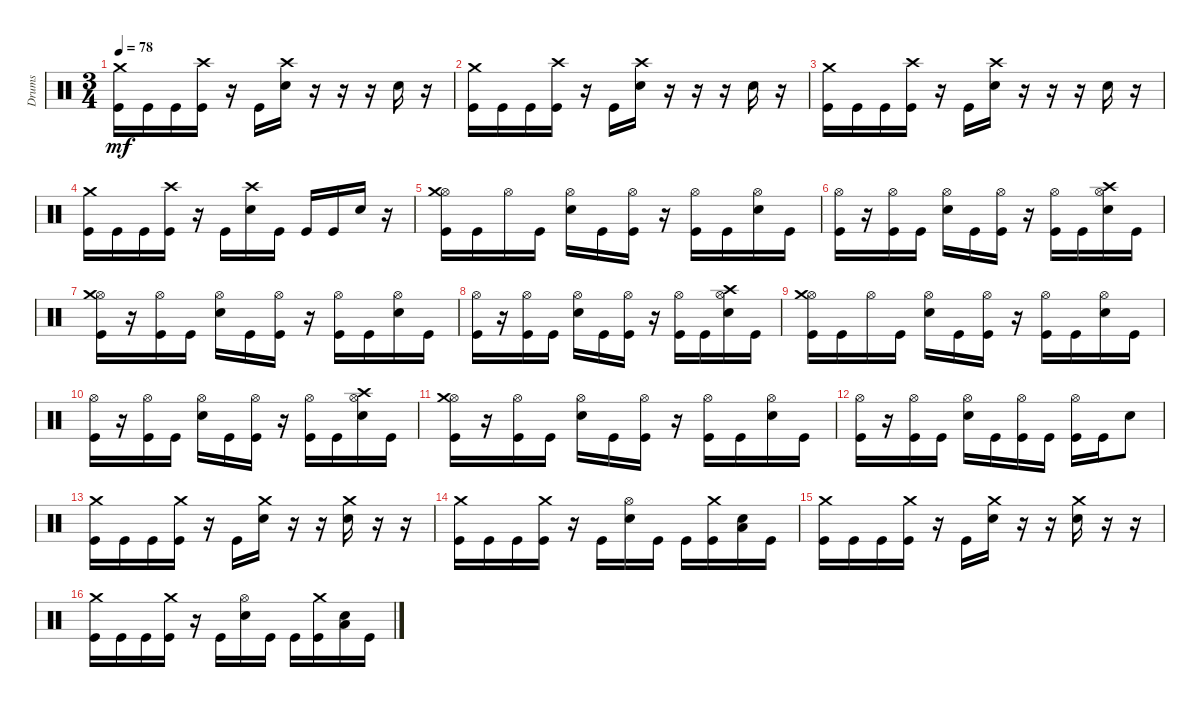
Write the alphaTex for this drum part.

\track ("Drums" "Drums") {instrument percussion}
\staff {score}
\articulation defaults
\ts (3 4)
\tempo 78
\clef neutral
\ks c
("Kick (hit)" "Crash medium (hit)").16{dy mf} "Kick (hit)".16 "Kick (hit)".16 ("Kick (hit)" "Crash high (hit)").16 r.16 "Kick (hit)".16 ("Snare (hit) 2" "Crash high (hit)").16 r.16 r.16 r.16 "Snare (hit) 2".16 r.16 |
("Kick (hit)" "Crash medium (hit)").16 "Kick (hit)".16 "Kick (hit)".16 ("Kick (hit)" "Crash high (hit)").16 r.16 "Kick (hit)".16 ("Snare (hit) 2" "Crash high (hit)").16 r.16 r.16 r.16 "Snare (hit) 2".16 r.16 |
("Kick (hit)" "Crash medium (hit)").16 "Kick (hit)".16 "Kick (hit)".16 ("Kick (hit)" "Crash high (hit)").16 r.16 "Kick (hit)".16 ("Snare (hit) 2" "Crash high (hit)").16 r.16 r.16 r.16 "Snare (hit) 2".16 r.16 |
("Kick (hit)" "Crash medium (hit)").16 "Kick (hit)".16 "Kick (hit)".16 ("Kick (hit)" "Crash high (hit)").16 r.16 "Kick (hit)".16 ("Snare (hit) 2" "Crash high (hit)").16 "Kick (hit)".16 "Kick (hit)".16 "Kick (hit)".16 "Snare (hit) 2".16 r.16 |
("Kick (hit)" "Hi-Hat (open)" "Crash medium (hit)").16 "Kick (hit)".16 "Hi-Hat (open)".16 "Kick (hit)".16 ("Snare (hit) 2" "Hi-Hat (open)").16 "Kick (hit)".16 ("Kick (hit)" "Hi-Hat (open)").16 r.16 ("Kick (hit)" "Hi-Hat (open)").16 "Kick (hit)".16 ("Snare (hit) 2" "Hi-Hat (open)").16 "Kick (hit)".16 |
("Kick (hit)" "Hi-Hat (open)").16 r.16 ("Kick (hit)" "Hi-Hat (open)").16 "Kick (hit)".16 ("Snare (hit) 2" "Hi-Hat (open)").16 "Kick (hit)".16 ("Kick (hit)" "Hi-Hat (open)").16 r.16 ("Kick (hit)" "Hi-Hat (open)").16 "Kick (hit)".16 ("Snare (hit) 2" "Hi-Hat (open)" "Crash high (hit)").16 "Kick (hit)".16 |
("Kick (hit)" "Hi-Hat (open)" "Crash medium (hit)").16 r.16 ("Kick (hit)" "Hi-Hat (open)").16 "Kick (hit)".16 ("Snare (hit) 2" "Hi-Hat (open)").16 "Kick (hit)".16 ("Kick (hit)" "Hi-Hat (open)").16 r.16 ("Kick (hit)" "Hi-Hat (open)").16 "Kick (hit)".16 ("Snare (hit) 2" "Hi-Hat (open)").16 "Kick (hit)".16 |
("Kick (hit)" "Hi-Hat (open)").16 r.16 ("Kick (hit)" "Hi-Hat (open)").16 "Kick (hit)".16 ("Snare (hit) 2" "Hi-Hat (open)").16 "Kick (hit)".16 ("Kick (hit)" "Hi-Hat (open)").16 r.16 ("Hi-Hat (open)" "Kick (hit)").16 "Kick (hit)".16 ("Hi-Hat (open)" "Snare (hit) 2" "Crash high (hit)").16 "Kick (hit)".16 |
("Kick (hit)" "Hi-Hat (open)" "Crash medium (hit)").16 "Kick (hit)".16 "Hi-Hat (open)".16 "Kick (hit)".16 ("Snare (hit) 2" "Hi-Hat (open)").16 "Kick (hit)".16 ("Kick (hit)" "Hi-Hat (open)").16 r.16 ("Kick (hit)" "Hi-Hat (open)").16 "Kick (hit)".16 ("Snare (hit) 2" "Hi-Hat (open)").16 "Kick (hit)".16 |
("Kick (hit)" "Hi-Hat (open)").16 r.16 ("Kick (hit)" "Hi-Hat (open)").16 "Kick (hit)".16 ("Snare (hit) 2" "Hi-Hat (open)").16 "Kick (hit)".16 ("Kick (hit)" "Hi-Hat (open)").16 r.16 ("Kick (hit)" "Hi-Hat (open)").16 "Kick (hit)".16 ("Snare (hit) 2" "Hi-Hat (open)" "Crash high (hit)").16 "Kick (hit)".16 |
("Kick (hit)" "Hi-Hat (open)" "Crash medium (hit)").16 r.16 ("Kick (hit)" "Hi-Hat (open)").16 "Kick (hit)".16 ("Snare (hit) 2" "Hi-Hat (open)").16 "Kick (hit)".16 ("Kick (hit)" "Hi-Hat (open)").16 r.16 ("Kick (hit)" "Hi-Hat (open)").16 "Kick (hit)".16 ("Snare (hit) 2" "Hi-Hat (open)").16 "Kick (hit)".16 |
("Kick (hit)" "Hi-Hat (open)").16 r.16 ("Kick (hit)" "Hi-Hat (open)").16 "Kick (hit)".16 ("Snare (hit) 2" "Hi-Hat (open)").16 "Kick (hit)".16 ("Kick (hit)" "Hi-Hat (open)").16 "Kick (hit)".16 ("Kick (hit)" "Hi-Hat (open)").16 "Kick (hit)".16 "Snare (hit) 2".8 |
("Kick (hit)" "Crash medium (hit)").16 "Kick (hit)".16 "Kick (hit)".16 ("Kick (hit)" "Crash medium (hit)").16 r.16 "Kick (hit)".16 ("Snare (hit) 2" "Crash medium (hit)").16 r.16 r.16 ("Snare (hit) 2" "Crash medium (hit)").16 r.16 r.16 |
("Kick (hit)" "Crash medium (hit)").16 "Kick (hit)".16 "Kick (hit)".16 ("Kick (hit)" "Crash medium (hit)").16 r.16 "Kick (hit)".16 ("Snare (hit) 2" "Hi-Hat (open)").16 "Kick (hit)".16 "Kick (hit)".16 ("Kick (hit)" "Crash medium (hit)").16 ("Low Tom (hit)" "Snare (hit) 2").16 "Kick (hit)".16 |
("Kick (hit)" "Crash medium (hit)").16 "Kick (hit)".16 "Kick (hit)".16 ("Kick (hit)" "Crash medium (hit)").16 r.16 "Kick (hit)".16 ("Snare (hit) 2" "Crash medium (hit)").16 r.16 r.16 ("Snare (hit) 2" "Crash medium (hit)").16 r.16 r.16 |
("Kick (hit)" "Crash medium (hit)").16 "Kick (hit)".16 "Kick (hit)".16 ("Kick (hit)" "Crash medium (hit)").16 r.16 "Kick (hit)".16 ("Snare (hit) 2" "Hi-Hat (open)").16 "Kick (hit)".16 "Kick (hit)".16 ("Kick (hit)" "Crash medium (hit)").16 ("Low Tom (hit)" "Snare (hit) 2").16 "Kick (hit)".16
